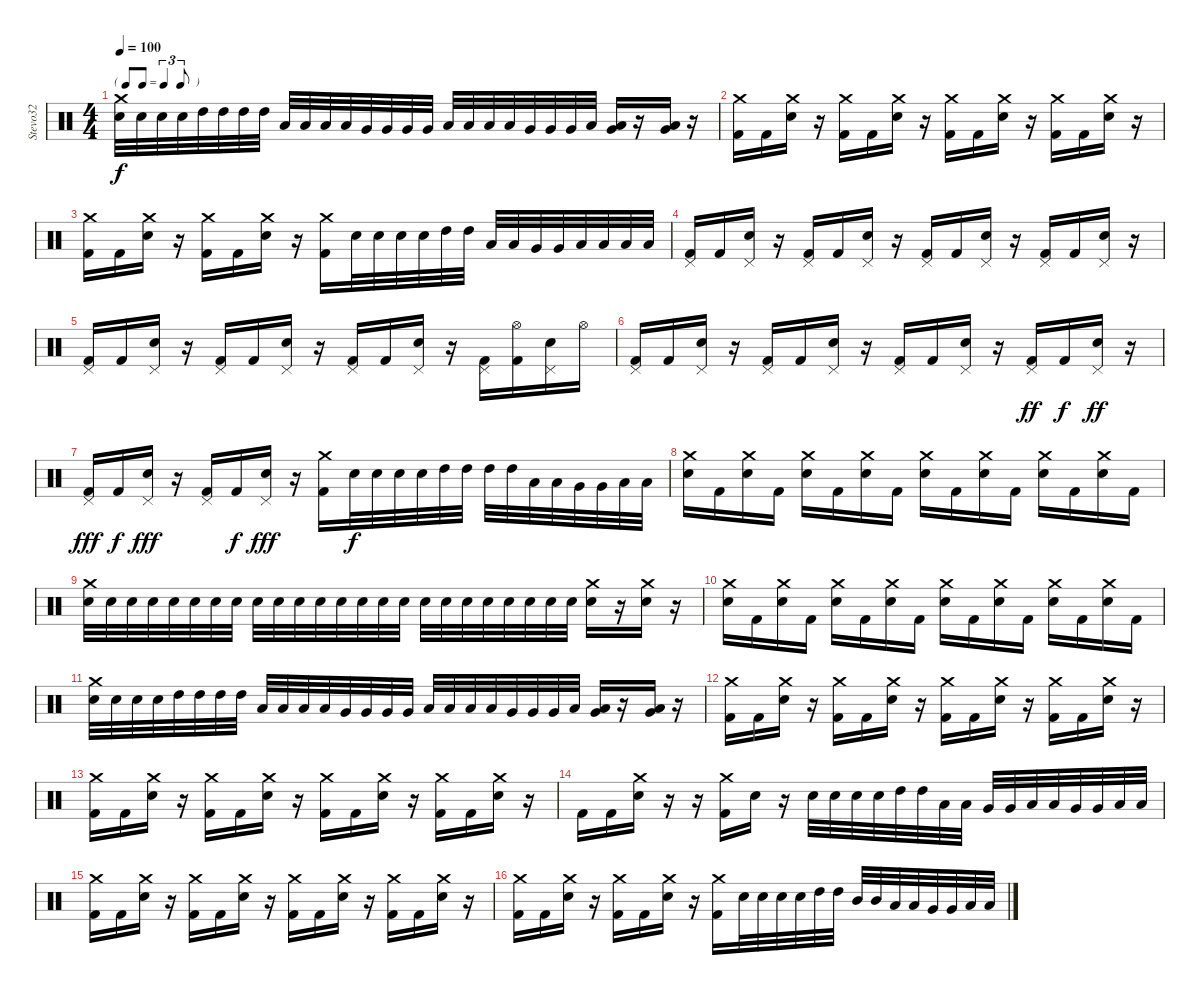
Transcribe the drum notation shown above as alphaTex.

\track ("Stevo32" "Stevo32") {instrument percussion}
\staff {score}
\articulation defaults
\ts (4 4)
\tf triplet8th
\tempo 100
\clef neutral
\ks c
("Crash medium (hit)" "Electric Snare (hit)").32{dy f} "Electric Snare (hit)".32 "Electric Snare (hit)".32 "Electric Snare (hit)".32 "High Tom (hit)".32 "High Tom (hit)".32 "High Tom (hit)".32 "High Tom (hit)".32 "Low Tom (hit)".32 "Low Tom (hit)".32 "Low Tom (hit)".32 "Low Tom (hit)".32 "Very Low Tom (hit)".32 "Very Low Tom (hit)".32 "Very Low Tom (hit)".32 "Very Low Tom (hit)".32 "Low Floor Tom (hit)".32 "Low Floor Tom (hit)".32 "Low Floor Tom (hit)".32 "Low Floor Tom (hit)".32 "Very Low Tom (hit)".32 "Very Low Tom (hit)".32 "Very Low Tom (hit)".32 "Low Tom (hit)".32 ("Very Low Tom (hit)" "Low Tom (hit)").16 r.16 ("Very Low Tom (hit)" "Low Tom (hit)").16 r.16 |
("Crash medium (hit)" "Kick (hit) 2").16 "Kick (hit) 2".16 ("Crash medium (hit)" "Electric Snare (hit)").16 r.16 ("Crash medium (hit)" "Kick (hit) 2").16 "Kick (hit) 2".16 ("Crash medium (hit)" "Electric Snare (hit)").16 r.16 ("Crash medium (hit)" "Kick (hit) 2").16 "Kick (hit) 2".16 ("Crash medium (hit)" "Electric Snare (hit)").16 r.16 ("Crash medium (hit)" "Kick (hit) 2").16 "Kick (hit) 2".16 ("Crash medium (hit)" "Electric Snare (hit)").16 r.16 |
("Crash medium (hit)" "Kick (hit) 2").16 "Kick (hit) 2".16 ("Crash medium (hit)" "Electric Snare (hit)").16 r.16 ("Crash medium (hit)" "Kick (hit) 2").16 "Kick (hit) 2".16 ("Crash medium (hit)" "Electric Snare (hit)").16 r.16 ("Crash medium (hit)" "Kick (hit) 2").16 "Electric Snare (hit)".32 "Electric Snare (hit)".32 "Electric Snare (hit)".32 "Electric Snare (hit)".32 "High Tom (hit)".32 "High Tom (hit)".32 "Low Tom (hit)".32 "Low Tom (hit)".32 "Very Low Tom (hit)".32 "Very Low Tom (hit)".32 "Low Floor Tom (hit)".32 "Low Floor Tom (hit)".32 "Low Floor Tom (hit)".32 "Low Floor Tom (hit)".32 |
("Pedal Hi-Hat (hit)" "Kick (hit) 2").16 "Kick (hit) 2".16 ("Pedal Hi-Hat (hit)" "Electric Snare (hit)").16 r.16 ("Pedal Hi-Hat (hit)" "Kick (hit) 2").16 "Kick (hit) 2".16 ("Pedal Hi-Hat (hit)" "Electric Snare (hit)").16 r.16 ("Pedal Hi-Hat (hit)" "Kick (hit) 2").16 "Kick (hit) 2".16 ("Pedal Hi-Hat (hit)" "Electric Snare (hit)").16 r.16 ("Pedal Hi-Hat (hit)" "Kick (hit) 2").16 "Kick (hit) 2".16 ("Pedal Hi-Hat (hit)" "Electric Snare (hit)").16 r.16 |
("Pedal Hi-Hat (hit)" "Kick (hit) 2").16 "Kick (hit) 2".16 ("Pedal Hi-Hat (hit)" "Electric Snare (hit)").16 r.16 ("Pedal Hi-Hat (hit)" "Kick (hit) 2").16 "Kick (hit) 2".16 ("Pedal Hi-Hat (hit)" "Electric Snare (hit)").16 r.16 ("Pedal Hi-Hat (hit)" "Kick (hit) 2").16 "Kick (hit) 2".16 ("Pedal Hi-Hat (hit)" "Electric Snare (hit)").16 r.16 ("Pedal Hi-Hat (hit)" "Kick (hit) 2").16 ("Hi-Hat (open)" "Kick (hit) 2").16 ("Pedal Hi-Hat (hit)" "Electric Snare (hit)").16 "Hi-Hat (open)".16 |
("Pedal Hi-Hat (hit)" "Kick (hit) 2").16 "Kick (hit) 2".16 ("Pedal Hi-Hat (hit)" "Electric Snare (hit)").16 r.16 ("Pedal Hi-Hat (hit)" "Kick (hit) 2").16 "Kick (hit) 2".16 ("Pedal Hi-Hat (hit)" "Electric Snare (hit)").16 r.16 ("Pedal Hi-Hat (hit)" "Kick (hit) 2").16 "Kick (hit) 2".16 ("Pedal Hi-Hat (hit)" "Electric Snare (hit)").16 r.16 ("Pedal Hi-Hat (hit)" "Kick (hit) 2").16{dy ff} "Kick (hit) 2".16{dy f} ("Pedal Hi-Hat (hit)" "Electric Snare (hit)").16{dy ff} r.16 |
("Pedal Hi-Hat (hit)" "Kick (hit) 2").16{dy fff} "Kick (hit) 2".16{dy f} ("Pedal Hi-Hat (hit)" "Electric Snare (hit)").16{dy fff} r.16 ("Pedal Hi-Hat (hit)" "Kick (hit) 2").16 "Kick (hit) 2".16{dy f} ("Pedal Hi-Hat (hit)" "Electric Snare (hit)").16{dy fff} r.16 ("Crash medium (hit)" "Kick (hit) 2").16 "Electric Snare (hit)".32{dy f} "Electric Snare (hit)".32 "Electric Snare (hit)".32 "Electric Snare (hit)".32 "High Tom (hit)".32 "High Tom (hit)".32 "High Tom (hit)".32 "High Tom (hit)".32 "Low Tom (hit)".32 "Low Tom (hit)".32 "Very Low Tom (hit)".32 "Very Low Tom (hit)".32 "Low Floor Tom (hit)".32 "Low Floor Tom (hit)".32 |
("Crash medium (hit)" "Electric Snare (hit)").16 "Kick (hit) 2".16 ("Crash medium (hit)" "Electric Snare (hit)").16 "Kick (hit) 2".16 ("Crash medium (hit)" "Electric Snare (hit)").16 "Kick (hit) 2".16 ("Crash medium (hit)" "Electric Snare (hit)").16 "Kick (hit) 2".16 ("Crash medium (hit)" "Electric Snare (hit)").16 "Kick (hit) 2".16 ("Crash medium (hit)" "Electric Snare (hit)").16 "Kick (hit) 2".16 ("Crash medium (hit)" "Electric Snare (hit)").16 "Kick (hit) 2".16 ("Crash medium (hit)" "Electric Snare (hit)").16 "Kick (hit) 2".16 |
("Crash medium (hit)" "Electric Snare (hit)").32 "Electric Snare (hit)".32 "Electric Snare (hit)".32 "Electric Snare (hit)".32 "Electric Snare (hit)".32 "Electric Snare (hit)".32 "Electric Snare (hit)".32 "Electric Snare (hit)".32 "Electric Snare (hit)".32 "Electric Snare (hit)".32 "Electric Snare (hit)".32 "Electric Snare (hit)".32 "Electric Snare (hit)".32 "Electric Snare (hit)".32 "Electric Snare (hit)".32 "Electric Snare (hit)".32 "Electric Snare (hit)".32 "Electric Snare (hit)".32 "Electric Snare (hit)".32 "Electric Snare (hit)".32 "Electric Snare (hit)".32 "Electric Snare (hit)".32 "Electric Snare (hit)".32 "Electric Snare (hit)".32 ("Crash medium (hit)" "Electric Snare (hit)").16 r.16 ("Crash medium (hit)" "Electric Snare (hit)").16 r.16 |
("Crash medium (hit)" "Electric Snare (hit)").16 "Kick (hit) 2".16 ("Crash medium (hit)" "Electric Snare (hit)").16 "Kick (hit) 2".16 ("Crash medium (hit)" "Electric Snare (hit)").16 "Kick (hit) 2".16 ("Crash medium (hit)" "Electric Snare (hit)").16 "Kick (hit) 2".16 ("Crash medium (hit)" "Electric Snare (hit)").16 "Kick (hit) 2".16 ("Crash medium (hit)" "Electric Snare (hit)").16 "Kick (hit) 2".16 ("Crash medium (hit)" "Electric Snare (hit)").16 "Kick (hit) 2".16 ("Crash medium (hit)" "Electric Snare (hit)").16 "Kick (hit) 2".16 |
("Crash medium (hit)" "Electric Snare (hit)").32 "Electric Snare (hit)".32 "Electric Snare (hit)".32 "Electric Snare (hit)".32 "High Tom (hit)".32 "High Tom (hit)".32 "High Tom (hit)".32 "High Tom (hit)".32 "Low Tom (hit)".32 "Low Tom (hit)".32 "Low Tom (hit)".32 "Low Tom (hit)".32 "Very Low Tom (hit)".32 "Very Low Tom (hit)".32 "Very Low Tom (hit)".32 "Very Low Tom (hit)".32 "Low Floor Tom (hit)".32 "Low Floor Tom (hit)".32 "Low Floor Tom (hit)".32 "Low Floor Tom (hit)".32 "Very Low Tom (hit)".32 "Very Low Tom (hit)".32 "Very Low Tom (hit)".32 "Low Tom (hit)".32 ("Very Low Tom (hit)" "Low Tom (hit)").16 r.16 ("Very Low Tom (hit)" "Low Tom (hit)").16 r.16 |
("Crash medium (hit)" "Kick (hit) 2").16 "Kick (hit) 2".16 ("Crash medium (hit)" "Electric Snare (hit)").16 r.16 ("Crash medium (hit)" "Kick (hit) 2").16 "Kick (hit) 2".16 ("Crash medium (hit)" "Electric Snare (hit)").16 r.16 ("Crash medium (hit)" "Kick (hit) 2").16 "Kick (hit) 2".16 ("Crash medium (hit)" "Electric Snare (hit)").16 r.16 ("Crash medium (hit)" "Kick (hit) 2").16 "Kick (hit) 2".16 ("Crash medium (hit)" "Electric Snare (hit)").16 r.16 |
("Crash medium (hit)" "Kick (hit) 2").16 "Kick (hit) 2".16 ("Crash medium (hit)" "Electric Snare (hit)").16 r.16 ("Crash medium (hit)" "Kick (hit) 2").16 "Kick (hit) 2".16 ("Crash medium (hit)" "Electric Snare (hit)").16 r.16 ("Crash medium (hit)" "Kick (hit) 2").16 "Kick (hit) 2".16 ("Crash medium (hit)" "Electric Snare (hit)").16 r.16 ("Crash medium (hit)" "Kick (hit) 2").16 "Kick (hit) 2".16 ("Crash medium (hit)" "Electric Snare (hit)").16 r.16 |
"Kick (hit) 2".16 "Kick (hit) 2".16 ("Crash medium (hit)" "Electric Snare (hit)").16 r.16 r.16 ("Crash medium (hit)" "Kick (hit) 2").16 "Electric Snare (hit)".16 r.16 "Electric Snare (hit)".32 "Electric Snare (hit)".32 "Electric Snare (hit)".32 "Electric Snare (hit)".32 "High Tom (hit)".32 "High Tom (hit)".32 "Low Tom (hit)".32 "Low Tom (hit)".32 "Very Low Tom (hit)".32 "Very Low Tom (hit)".32 "Low Floor Tom (hit)".32 "Low Floor Tom (hit)".32 "Very Low Tom (hit)".32 "Very Low Tom (hit)".32 "Low Tom (hit)".32 "Low Tom (hit)".32 |
("Crash medium (hit)" "Kick (hit) 2").16 "Kick (hit) 2".16 ("Crash medium (hit)" "Electric Snare (hit)").16 r.16 ("Crash medium (hit)" "Kick (hit) 2").16 "Kick (hit) 2".16 ("Crash medium (hit)" "Electric Snare (hit)").16 r.16 ("Crash medium (hit)" "Kick (hit) 2").16 "Kick (hit) 2".16 ("Crash medium (hit)" "Electric Snare (hit)").16 r.16 ("Crash medium (hit)" "Kick (hit) 2").16 "Kick (hit) 2".16 ("Crash medium (hit)" "Electric Snare (hit)").16 r.16 |
("Crash medium (hit)" "Kick (hit) 2").16 "Kick (hit) 2".16 ("Crash medium (hit)" "Electric Snare (hit)").16 r.16 ("Crash medium (hit)" "Kick (hit) 2").16 "Kick (hit) 2".16 ("Crash medium (hit)" "Electric Snare (hit)").16 r.16 ("Crash medium (hit)" "Kick (hit) 2").16 "Electric Snare (hit)".32 "Electric Snare (hit)".32 "Electric Snare (hit)".32 "Electric Snare (hit)".32 "High Tom (hit)".32 "High Tom (hit)".32 "Mid Tom (hit)".32 "Mid Tom (hit)".32 "Low Tom (hit)".32 "Low Tom (hit)".32 "Very Low Tom (hit)".32 "Very Low Tom (hit)".32 "Low Floor Tom (hit)".32 "Low Floor Tom (hit)".32
